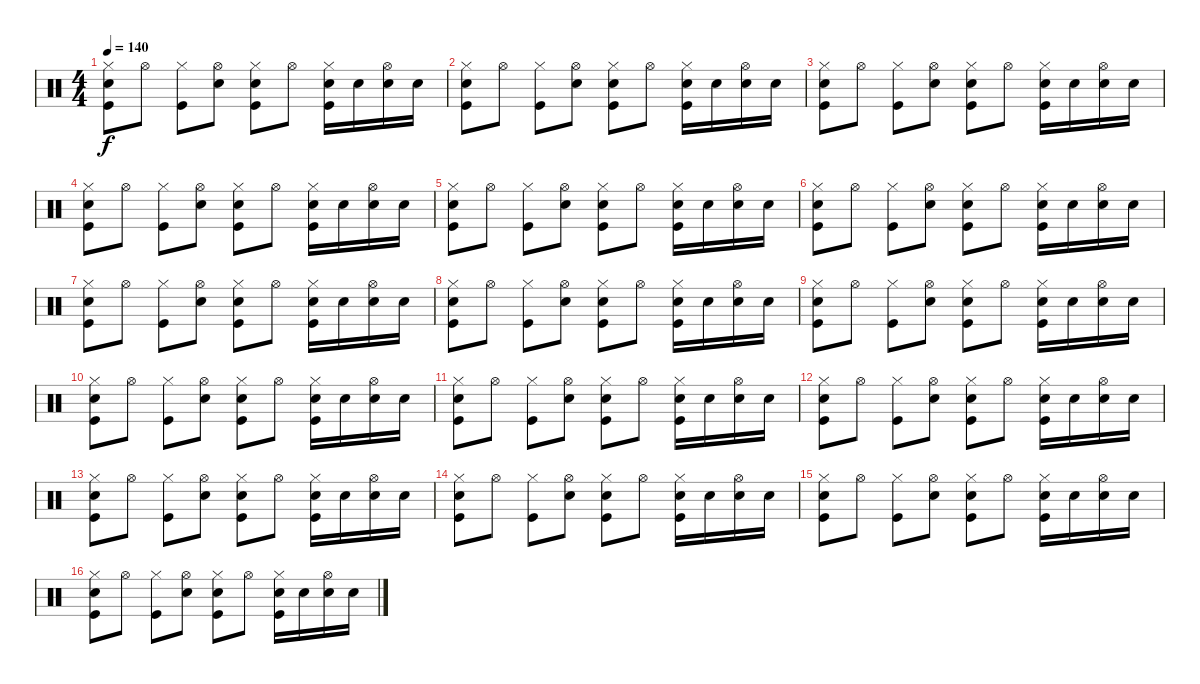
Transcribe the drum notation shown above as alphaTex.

\track "" {instrument percussion}
\staff {score}
\articulation defaults
\ts (4 4)
\tempo 140
\clef neutral
\ks c
("Hi-Hat (closed)" "Kick (hit)" "Snare (hit) 2").8{dy f} "Hi-Hat (open)".8 ("Hi-Hat (closed)" "Kick (hit)").8 ("Hi-Hat (open)" "Snare (hit) 2").8 ("Hi-Hat (closed)" "Kick (hit)" "Snare (hit) 2").8 "Hi-Hat (open)".8 ("Hi-Hat (closed)" "Kick (hit)" "Snare (hit) 2").16 "Snare (hit) 2".16 ("Hi-Hat (open)" "Snare (hit) 2").16 "Snare (hit) 2".16 |
("Snare (hit) 2" "Hi-Hat (closed)" "Kick (hit)").8 "Hi-Hat (open)".8 ("Hi-Hat (closed)" "Kick (hit)").8 ("Snare (hit) 2" "Hi-Hat (open)").8 ("Snare (hit) 2" "Hi-Hat (closed)" "Kick (hit)").8 "Hi-Hat (open)".8 ("Snare (hit) 2" "Hi-Hat (closed)" "Kick (hit)").16 "Snare (hit) 2".16 ("Snare (hit) 2" "Hi-Hat (open)").16 "Snare (hit) 2".16 |
("Snare (hit) 2" "Hi-Hat (closed)" "Kick (hit)").8 "Hi-Hat (open)".8 ("Hi-Hat (closed)" "Kick (hit)").8 ("Snare (hit) 2" "Hi-Hat (open)").8 ("Snare (hit) 2" "Hi-Hat (closed)" "Kick (hit)").8 "Hi-Hat (open)".8 ("Snare (hit) 2" "Hi-Hat (closed)" "Kick (hit)").16 "Snare (hit) 2".16 ("Snare (hit) 2" "Hi-Hat (open)").16 "Snare (hit) 2".16 |
("Snare (hit) 2" "Hi-Hat (closed)" "Kick (hit)").8 "Hi-Hat (open)".8 ("Hi-Hat (closed)" "Kick (hit)").8 ("Snare (hit) 2" "Hi-Hat (open)").8 ("Snare (hit) 2" "Hi-Hat (closed)" "Kick (hit)").8 "Hi-Hat (open)".8 ("Snare (hit) 2" "Hi-Hat (closed)" "Kick (hit)").16 "Snare (hit) 2".16 ("Snare (hit) 2" "Hi-Hat (open)").16 "Snare (hit) 2".16 |
("Snare (hit) 2" "Hi-Hat (closed)" "Kick (hit)").8 "Hi-Hat (open)".8 ("Hi-Hat (closed)" "Kick (hit)").8 ("Snare (hit) 2" "Hi-Hat (open)").8 ("Snare (hit) 2" "Hi-Hat (closed)" "Kick (hit)").8 "Hi-Hat (open)".8 ("Snare (hit) 2" "Hi-Hat (closed)" "Kick (hit)").16 "Snare (hit) 2".16 ("Snare (hit) 2" "Hi-Hat (open)").16 "Snare (hit) 2".16 |
("Snare (hit) 2" "Hi-Hat (closed)" "Kick (hit)").8 "Hi-Hat (open)".8 ("Hi-Hat (closed)" "Kick (hit)").8 ("Snare (hit) 2" "Hi-Hat (open)").8 ("Snare (hit) 2" "Hi-Hat (closed)" "Kick (hit)").8 "Hi-Hat (open)".8 ("Snare (hit) 2" "Hi-Hat (closed)" "Kick (hit)").16 "Snare (hit) 2".16 ("Snare (hit) 2" "Hi-Hat (open)").16 "Snare (hit) 2".16 |
("Snare (hit) 2" "Hi-Hat (closed)" "Kick (hit)").8 "Hi-Hat (open)".8 ("Hi-Hat (closed)" "Kick (hit)").8 ("Snare (hit) 2" "Hi-Hat (open)").8 ("Snare (hit) 2" "Hi-Hat (closed)" "Kick (hit)").8 "Hi-Hat (open)".8 ("Snare (hit) 2" "Hi-Hat (closed)" "Kick (hit)").16 "Snare (hit) 2".16 ("Snare (hit) 2" "Hi-Hat (open)").16 "Snare (hit) 2".16 |
("Snare (hit) 2" "Hi-Hat (closed)" "Kick (hit)").8 "Hi-Hat (open)".8 ("Hi-Hat (closed)" "Kick (hit)").8 ("Snare (hit) 2" "Hi-Hat (open)").8 ("Snare (hit) 2" "Hi-Hat (closed)" "Kick (hit)").8 "Hi-Hat (open)".8 ("Snare (hit) 2" "Hi-Hat (closed)" "Kick (hit)").16 "Snare (hit) 2".16 ("Snare (hit) 2" "Hi-Hat (open)").16 "Snare (hit) 2".16 |
("Hi-Hat (closed)" "Kick (hit)" "Snare (hit) 2").8 "Hi-Hat (open)".8 ("Hi-Hat (closed)" "Kick (hit)").8 ("Hi-Hat (open)" "Snare (hit) 2").8 ("Hi-Hat (closed)" "Kick (hit)" "Snare (hit) 2").8 "Hi-Hat (open)".8 ("Hi-Hat (closed)" "Kick (hit)" "Snare (hit) 2").16 "Snare (hit) 2".16 ("Hi-Hat (open)" "Snare (hit) 2").16 "Snare (hit) 2".16 |
("Snare (hit) 2" "Hi-Hat (closed)" "Kick (hit)").8 "Hi-Hat (open)".8 ("Hi-Hat (closed)" "Kick (hit)").8 ("Snare (hit) 2" "Hi-Hat (open)").8 ("Snare (hit) 2" "Hi-Hat (closed)" "Kick (hit)").8 "Hi-Hat (open)".8 ("Snare (hit) 2" "Hi-Hat (closed)" "Kick (hit)").16 "Snare (hit) 2".16 ("Snare (hit) 2" "Hi-Hat (open)").16 "Snare (hit) 2".16 |
("Hi-Hat (closed)" "Kick (hit)" "Snare (hit) 2").8 "Hi-Hat (open)".8 ("Hi-Hat (closed)" "Kick (hit)").8 ("Hi-Hat (open)" "Snare (hit) 2").8 ("Hi-Hat (closed)" "Kick (hit)" "Snare (hit) 2").8 "Hi-Hat (open)".8 ("Hi-Hat (closed)" "Kick (hit)" "Snare (hit) 2").16 "Snare (hit) 2".16 ("Hi-Hat (open)" "Snare (hit) 2").16 "Snare (hit) 2".16 |
("Hi-Hat (closed)" "Kick (hit)" "Snare (hit) 2").8 "Hi-Hat (open)".8 ("Hi-Hat (closed)" "Kick (hit)").8 ("Hi-Hat (open)" "Snare (hit) 2").8 ("Hi-Hat (closed)" "Kick (hit)" "Snare (hit) 2").8 "Hi-Hat (open)".8 ("Hi-Hat (closed)" "Kick (hit)" "Snare (hit) 2").16 "Snare (hit) 2".16 ("Hi-Hat (open)" "Snare (hit) 2").16 "Snare (hit) 2".16 |
("Hi-Hat (closed)" "Kick (hit)" "Snare (hit) 2").8 "Hi-Hat (open)".8 ("Hi-Hat (closed)" "Kick (hit)").8 ("Hi-Hat (open)" "Snare (hit) 2").8 ("Hi-Hat (closed)" "Kick (hit)" "Snare (hit) 2").8 "Hi-Hat (open)".8 ("Hi-Hat (closed)" "Kick (hit)" "Snare (hit) 2").16 "Snare (hit) 2".16 ("Hi-Hat (open)" "Snare (hit) 2").16 "Snare (hit) 2".16 |
("Hi-Hat (closed)" "Kick (hit)" "Snare (hit) 2").8 "Hi-Hat (open)".8 ("Hi-Hat (closed)" "Kick (hit)").8 ("Hi-Hat (open)" "Snare (hit) 2").8 ("Hi-Hat (closed)" "Kick (hit)" "Snare (hit) 2").8 "Hi-Hat (open)".8 ("Hi-Hat (closed)" "Kick (hit)" "Snare (hit) 2").16 "Snare (hit) 2".16 ("Hi-Hat (open)" "Snare (hit) 2").16 "Snare (hit) 2".16 |
("Snare (hit) 2" "Hi-Hat (closed)" "Kick (hit)").8 "Hi-Hat (open)".8 ("Hi-Hat (closed)" "Kick (hit)").8 ("Snare (hit) 2" "Hi-Hat (open)").8 ("Snare (hit) 2" "Hi-Hat (closed)" "Kick (hit)").8 "Hi-Hat (open)".8 ("Snare (hit) 2" "Hi-Hat (closed)" "Kick (hit)").16 "Snare (hit) 2".16 ("Snare (hit) 2" "Hi-Hat (open)").16 "Snare (hit) 2".16 |
("Snare (hit) 2" "Hi-Hat (closed)" "Kick (hit)").8 "Hi-Hat (open)".8 ("Hi-Hat (closed)" "Kick (hit)").8 ("Snare (hit) 2" "Hi-Hat (open)").8 ("Snare (hit) 2" "Hi-Hat (closed)" "Kick (hit)").8 "Hi-Hat (open)".8 ("Snare (hit) 2" "Hi-Hat (closed)" "Kick (hit)").16 "Snare (hit) 2".16 ("Snare (hit) 2" "Hi-Hat (open)").16 "Snare (hit) 2".16
